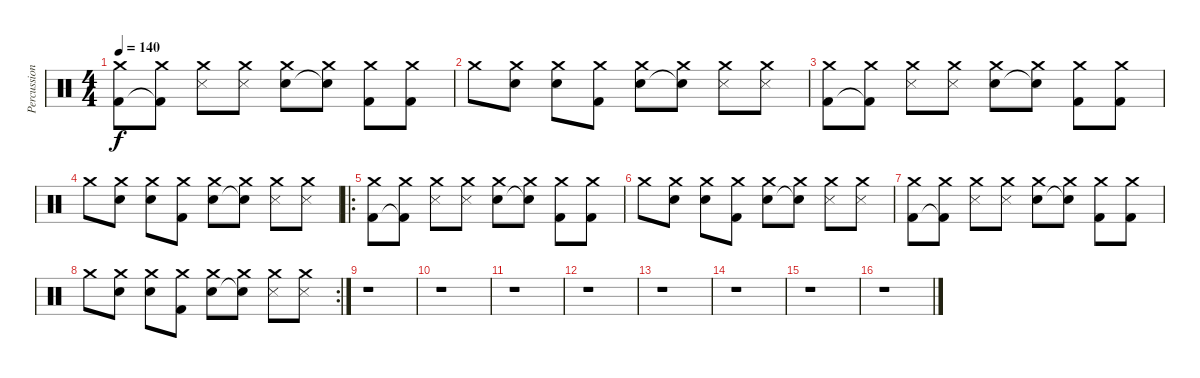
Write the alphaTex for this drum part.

\track ("Percussions" "Percussion") {instrument percussion}
\staff {score}
\articulation defaults
\ts (4 4)
\tempo 140
\clef neutral
\ks c
("Crash medium (hit)" "Kick (hit) 2").8{dy f} ("Crash medium (hit)" "Kick (hit) 2"{t}).8 ("Crash medium (hit)" "Snare (side stick) 3").8 ("Crash medium (hit)" "Snare (side stick) 3").8 ("Crash medium (hit)" "Electric Snare (hit)").8 ("Crash medium (hit)" "Snare (hit)"{t}).8 ("Crash medium (hit)" "Kick (hit) 2").8 ("Crash medium (hit)" "Kick (hit) 2").8 |
"Crash medium (hit)".8 ("Crash medium (hit)" "Electric Snare (hit)").8 ("Crash medium (hit)" "Snare (hit) 2").8 ("Crash medium (hit)" "Kick (hit) 2").8 ("Crash medium (hit)" "Electric Snare (hit)").8 ("Crash medium (hit)" "Snare (hit)"{t}).8 ("Crash medium (hit)" "Snare (side stick) 3").8 ("Crash medium (hit)" "Snare (side stick) 3").8 |
("Crash medium (hit)" "Kick (hit) 2").8 ("Crash medium (hit)" "Kick (hit) 2"{t}).8 ("Crash medium (hit)" "Snare (side stick) 3").8 ("Crash medium (hit)" "Snare (side stick) 3").8 ("Crash medium (hit)" "Electric Snare (hit)").8 ("Crash medium (hit)" "Snare (hit)"{t}).8 ("Crash medium (hit)" "Kick (hit) 2").8 ("Crash medium (hit)" "Kick (hit) 2").8 |
"Crash medium (hit)".8 ("Crash medium (hit)" "Electric Snare (hit)").8 ("Crash medium (hit)" "Snare (hit) 2").8 ("Crash medium (hit)" "Kick (hit) 2").8 ("Crash medium (hit)" "Electric Snare (hit)").8 ("Crash medium (hit)" "Snare (hit)"{t}).8 ("Crash medium (hit)" "Snare (side stick) 3").8 ("Crash medium (hit)" "Snare (side stick) 3").8 |
\ro
("Crash medium (hit)" "Kick (hit) 2").8 ("Crash medium (hit)" "Kick (hit) 2"{t}).8 ("Crash medium (hit)" "Snare (side stick) 3").8 ("Crash medium (hit)" "Snare (side stick) 3").8 ("Crash medium (hit)" "Electric Snare (hit)").8 ("Crash medium (hit)" "Snare (hit)"{t}).8 ("Crash medium (hit)" "Kick (hit) 2").8 ("Crash medium (hit)" "Kick (hit) 2").8 |
"Crash medium (hit)".8 ("Crash medium (hit)" "Electric Snare (hit)").8 ("Crash medium (hit)" "Snare (hit) 2").8 ("Crash medium (hit)" "Kick (hit) 2").8 ("Crash medium (hit)" "Electric Snare (hit)").8 ("Crash medium (hit)" "Snare (hit)"{t}).8 ("Crash medium (hit)" "Snare (side stick) 3").8 ("Crash medium (hit)" "Snare (side stick) 3").8 |
("Crash medium (hit)" "Kick (hit) 2").8 ("Crash medium (hit)" "Kick (hit) 2"{t}).8 ("Crash medium (hit)" "Snare (side stick) 3").8 ("Crash medium (hit)" "Snare (side stick) 3").8 ("Crash medium (hit)" "Electric Snare (hit)").8 ("Crash medium (hit)" "Snare (hit)"{t}).8 ("Crash medium (hit)" "Kick (hit) 2").8 ("Crash medium (hit)" "Kick (hit) 2").8 |
\rc 2 "Crash medium (hit)".8
("Crash medium (hit)" "Electric Snare (hit)").8 ("Crash medium (hit)" "Snare (hit) 2").8 ("Crash medium (hit)" "Kick (hit) 2").8 ("Crash medium (hit)" "Electric Snare (hit)").8 ("Crash medium (hit)" "Snare (hit)"{t}).8 ("Crash medium (hit)" "Snare (side stick) 3").8 ("Crash medium (hit)" "Snare (side stick) 3").8 |
r.1 |
r.1 |
r.1 |
r.1 |
r.1 |
r.1 |
r.1 |
r.1
